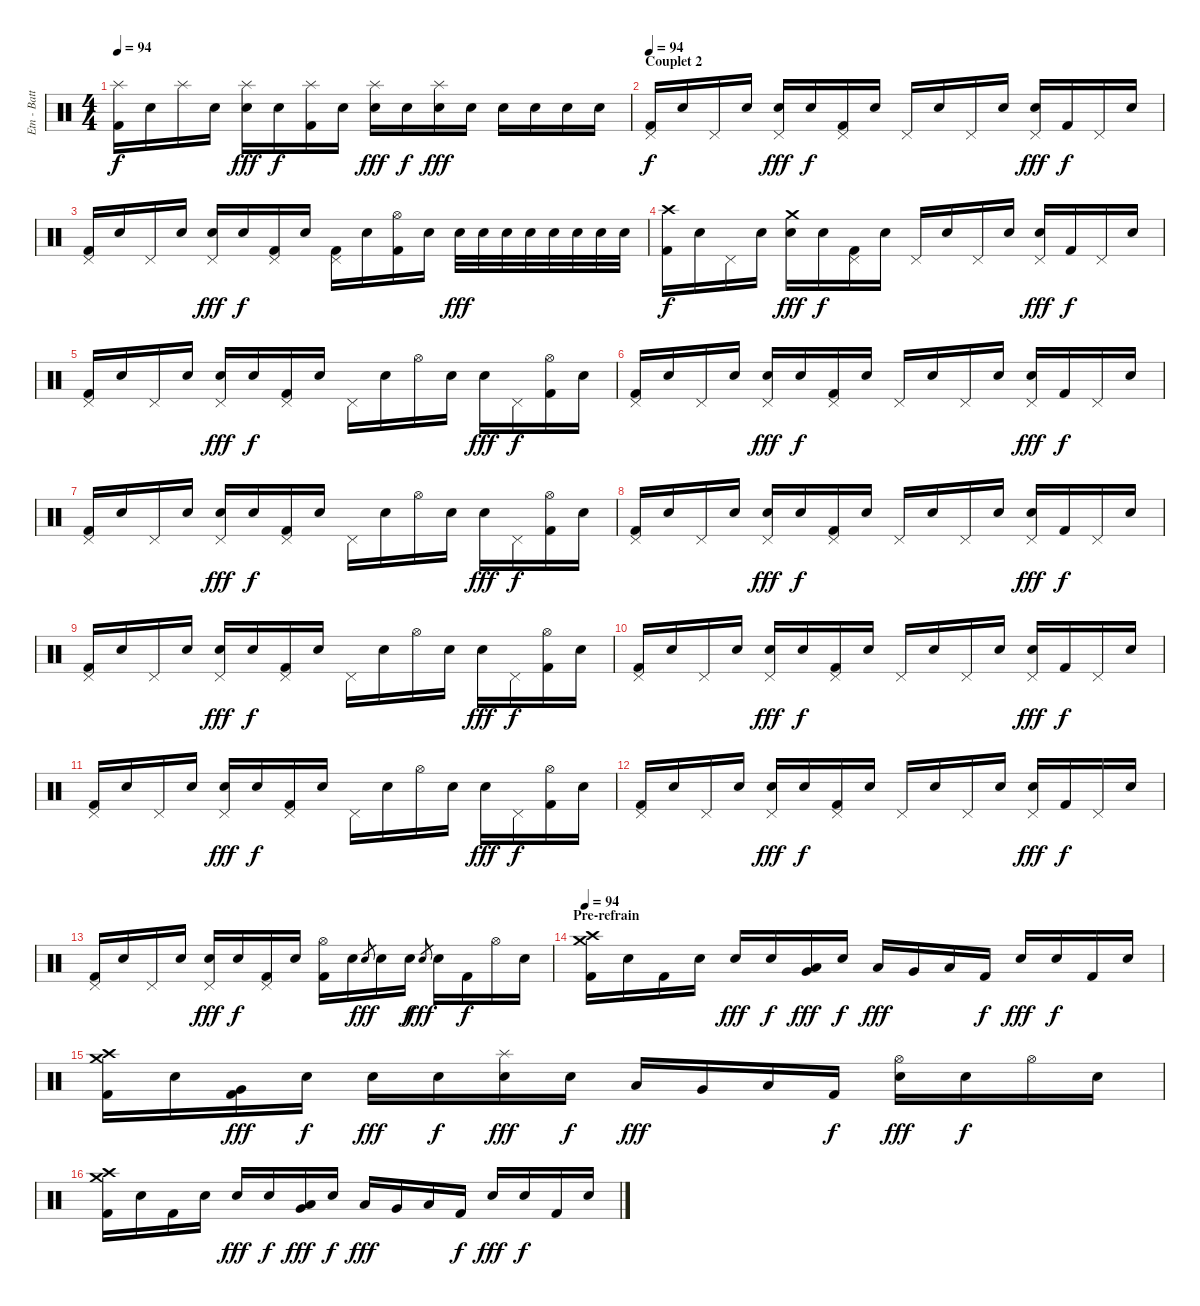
\track ("Etn - Batterie" "Etn - Batt") {instrument percussion}
\staff {score}
\articulation defaults
\ts (4 4)
\tempo 94
\clef neutral
\ks c
("Splash (hit)" "Kick (hit) 2").16{dy f} "Snare (hit)".16 "Splash (hit)".16 "Snare (hit)".16 ("Splash (hit)" "Electric Snare (hit)").16{dy fff} "Snare (hit)".16{dy f} ("Splash (hit)" "Kick (hit) 2").16 "Snare (hit)".16 ("Splash (hit)" "Electric Snare (hit)").16{dy fff} "Snare (hit)".16{dy f} ("Splash (hit)" "Electric Snare (hit)").16{dy fff} "Electric Snare (hit)".16 "Electric Snare (hit)".16 "Electric Snare (hit)".16 "Electric Snare (hit)".16 "Electric Snare (hit)".16 |
\section ("" "Couplet 2")
\tempo 94
("Pedal Hi-Hat (hit)" "Kick (hit) 2").16{dy f volume 16 balance 8} "Snare (hit)".16 "Pedal Hi-Hat (hit)".16 "Snare (hit)".16 ("Pedal Hi-Hat (hit)" "Electric Snare (hit)").16{dy fff} "Snare (hit)".16{dy f} ("Pedal Hi-Hat (hit)" "Kick (hit) 2").16 "Snare (hit)".16 "Pedal Hi-Hat (hit)".16 "Snare (hit)".16 "Pedal Hi-Hat (hit)".16 "Snare (hit)".16 ("Pedal Hi-Hat (hit)" "Electric Snare (hit)").16{dy fff} "Kick (hit) 2".16{dy f} "Pedal Hi-Hat (hit)".16 "Snare (hit)".16 |
("Pedal Hi-Hat (hit)" "Kick (hit) 2").16 "Snare (hit)".16 "Pedal Hi-Hat (hit)".16 "Snare (hit)".16 ("Pedal Hi-Hat (hit)" "Electric Snare (hit)").16{dy fff} "Snare (hit)".16{dy f} ("Pedal Hi-Hat (hit)" "Kick (hit) 2").16 "Snare (hit)".16 ("Pedal Hi-Hat (hit)" "Kick (hit) 2").16 "Snare (hit)".16 ("Hi-Hat (open)" "Kick (hit) 2").16 "Snare (hit)".16 "Electric Snare (hit)".32{dy fff} "Electric Snare (hit)".32 "Electric Snare (hit)".32 "Electric Snare (hit)".32 "Electric Snare (hit)".32 "Electric Snare (hit)".32 "Electric Snare (hit)".32 "Electric Snare (hit)".32 |
("Crash high (hit)" "Kick (hit) 2").16{dy f} "Snare (hit)".16 "Pedal Hi-Hat (hit)".16 "Snare (hit)".16 ("Crash medium (hit)" "Electric Snare (hit)").16{dy fff} "Snare (hit)".16{dy f} ("Pedal Hi-Hat (hit)" "Kick (hit) 2").16 "Snare (hit)".16 "Pedal Hi-Hat (hit)".16 "Snare (hit)".16 "Pedal Hi-Hat (hit)".16 "Snare (hit)".16 ("Pedal Hi-Hat (hit)" "Electric Snare (hit)").16{dy fff} "Kick (hit) 2".16{dy f} "Pedal Hi-Hat (hit)".16 "Snare (hit)".16 |
("Pedal Hi-Hat (hit)" "Kick (hit) 2").16 "Snare (hit)".16 "Pedal Hi-Hat (hit)".16 "Snare (hit)".16 ("Pedal Hi-Hat (hit)" "Electric Snare (hit)").16{dy fff} "Snare (hit)".16{dy f} ("Pedal Hi-Hat (hit)" "Kick (hit) 2").16 "Snare (hit)".16 "Pedal Hi-Hat (hit)".16 "Snare (hit)".16 "Hi-Hat (open)".16 "Snare (hit)".16 "Electric Snare (hit)".16{dy fff} "Pedal Hi-Hat (hit)".16{dy f} ("Hi-Hat (open)" "Kick (hit) 2").16 "Snare (hit)".16 |
("Pedal Hi-Hat (hit)" "Kick (hit) 2").16 "Snare (hit)".16 "Pedal Hi-Hat (hit)".16 "Snare (hit)".16 ("Pedal Hi-Hat (hit)" "Electric Snare (hit)").16{dy fff} "Snare (hit)".16{dy f} ("Pedal Hi-Hat (hit)" "Kick (hit) 2").16 "Snare (hit)".16 "Pedal Hi-Hat (hit)".16 "Snare (hit)".16 "Pedal Hi-Hat (hit)".16 "Snare (hit)".16 ("Pedal Hi-Hat (hit)" "Electric Snare (hit)").16{dy fff} "Kick (hit) 2".16{dy f} "Pedal Hi-Hat (hit)".16 "Snare (hit)".16 |
("Pedal Hi-Hat (hit)" "Kick (hit) 2").16 "Snare (hit)".16 "Pedal Hi-Hat (hit)".16 "Snare (hit)".16 ("Pedal Hi-Hat (hit)" "Electric Snare (hit)").16{dy fff} "Snare (hit)".16{dy f} ("Pedal Hi-Hat (hit)" "Kick (hit) 2").16 "Snare (hit)".16 "Pedal Hi-Hat (hit)".16 "Snare (hit)".16 "Hi-Hat (open)".16 "Snare (hit)".16 "Electric Snare (hit)".16{dy fff} "Pedal Hi-Hat (hit)".16{dy f} ("Hi-Hat (open)" "Kick (hit) 2").16 "Snare (hit)".16 |
("Pedal Hi-Hat (hit)" "Kick (hit) 2").16 "Snare (hit)".16 "Pedal Hi-Hat (hit)".16 "Snare (hit)".16 ("Pedal Hi-Hat (hit)" "Electric Snare (hit)").16{dy fff} "Snare (hit)".16{dy f} ("Pedal Hi-Hat (hit)" "Kick (hit) 2").16 "Snare (hit)".16 "Pedal Hi-Hat (hit)".16 "Snare (hit)".16 "Pedal Hi-Hat (hit)".16 "Snare (hit)".16 ("Pedal Hi-Hat (hit)" "Electric Snare (hit)").16{dy fff} "Kick (hit) 2".16{dy f} "Pedal Hi-Hat (hit)".16 "Snare (hit)".16 |
("Pedal Hi-Hat (hit)" "Kick (hit) 2").16 "Snare (hit)".16 "Pedal Hi-Hat (hit)".16 "Snare (hit)".16 ("Pedal Hi-Hat (hit)" "Electric Snare (hit)").16{dy fff} "Snare (hit)".16{dy f} ("Pedal Hi-Hat (hit)" "Kick (hit) 2").16 "Snare (hit)".16 "Pedal Hi-Hat (hit)".16 "Snare (hit)".16 "Hi-Hat (open)".16 "Snare (hit)".16 "Electric Snare (hit)".16{dy fff} "Pedal Hi-Hat (hit)".16{dy f} ("Hi-Hat (open)" "Kick (hit) 2").16 "Snare (hit)".16 |
("Pedal Hi-Hat (hit)" "Kick (hit) 2").16 "Snare (hit)".16 "Pedal Hi-Hat (hit)".16 "Snare (hit)".16 ("Pedal Hi-Hat (hit)" "Electric Snare (hit)").16{dy fff} "Snare (hit)".16{dy f} ("Pedal Hi-Hat (hit)" "Kick (hit) 2").16 "Snare (hit)".16 "Pedal Hi-Hat (hit)".16 "Snare (hit)".16 "Pedal Hi-Hat (hit)".16 "Snare (hit)".16 ("Pedal Hi-Hat (hit)" "Electric Snare (hit)").16{dy fff} "Kick (hit) 2".16{dy f} "Pedal Hi-Hat (hit)".16 "Snare (hit)".16 |
("Pedal Hi-Hat (hit)" "Kick (hit) 2").16 "Snare (hit)".16 "Pedal Hi-Hat (hit)".16 "Snare (hit)".16 ("Pedal Hi-Hat (hit)" "Electric Snare (hit)").16{dy fff} "Snare (hit)".16{dy f} ("Pedal Hi-Hat (hit)" "Kick (hit) 2").16 "Snare (hit)".16 "Pedal Hi-Hat (hit)".16 "Snare (hit)".16 "Hi-Hat (open)".16 "Snare (hit)".16 "Electric Snare (hit)".16{dy fff} "Pedal Hi-Hat (hit)".16{dy f} ("Hi-Hat (open)" "Kick (hit) 2").16 "Snare (hit)".16 |
("Pedal Hi-Hat (hit)" "Kick (hit) 2").16 "Snare (hit)".16 "Pedal Hi-Hat (hit)".16 "Snare (hit)".16 ("Pedal Hi-Hat (hit)" "Electric Snare (hit)").16{dy fff} "Snare (hit)".16{dy f} ("Pedal Hi-Hat (hit)" "Kick (hit) 2").16 "Snare (hit)".16 "Pedal Hi-Hat (hit)".16 "Snare (hit)".16 "Pedal Hi-Hat (hit)".16 "Snare (hit)".16 ("Pedal Hi-Hat (hit)" "Electric Snare (hit)").16{dy fff} "Kick (hit) 2".16{dy f} "Pedal Hi-Hat (hit)".16 "Snare (hit)".16 |
("Pedal Hi-Hat (hit)" "Kick (hit) 2").16 "Snare (hit)".16 "Pedal Hi-Hat (hit)".16 "Snare (hit)".16 ("Pedal Hi-Hat (hit)" "Electric Snare (hit)").16{dy fff} "Snare (hit)".16{dy f} ("Pedal Hi-Hat (hit)" "Kick (hit) 2").16 "Snare (hit)".16 ("Hi-Hat (open)" "Kick (hit) 2").16 "Snare (hit)".16 "Electric Snare (hit)".8{gr dy fff} "Electric Snare (hit)".16 "Snare (hit)".16{dy f} "Electric Snare (hit)".8{gr dy fff} "Electric Snare (hit)".16 "Kick (hit) 2".16{dy f} "Hi-Hat (open)".16 "Snare (hit)".16 |
\section ("" "Pre-refrain")
\tempo 94
("Crash medium (hit)" "Crash high (hit)" "Kick (hit) 2").16{volume 16 balance 8} "Snare (hit)".16 "Kick (hit) 2".16 "Snare (hit)".16 "Electric Snare (hit)".16{dy fff} "Snare (hit)".16{dy f} ("Low Tom (hit)" "Very Low Tom (hit)").16{dy fff} "Snare (hit)".16{dy f} "Low Tom (hit)".16{dy fff} "Very Low Tom (hit)".16 "Low Floor Tom (hit)".16 "Kick (hit) 2".16{dy f} "Electric Snare (hit)".16{dy fff} "Snare (hit)".16{dy f} "Kick (hit) 2".16 "Snare (hit)".16 |
("Crash medium (hit)" "Crash high (hit)" "Kick (hit) 2").16 "Snare (hit)".16 ("Very Low Tom (hit)" "Kick (hit) 2").16{dy fff} "Snare (hit)".16{dy f} "Electric Snare (hit)".16{dy fff} "Snare (hit)".16{dy f} ("Splash (hit)" "Electric Snare (hit)").16{dy fff} "Snare (hit)".16{dy f} "Low Tom (hit)".16{dy fff} "Very Low Tom (hit)".16 "Low Floor Tom (hit)".16 "Kick (hit) 2".16{dy f} ("Hi-Hat (open)" "Electric Snare (hit)").16{dy fff} "Snare (hit)".16{dy f} "Hi-Hat (open)".16 "Snare (hit)".16 |
("Crash medium (hit)" "Crash high (hit)" "Kick (hit) 2").16 "Snare (hit)".16 "Kick (hit) 2".16 "Snare (hit)".16 "Electric Snare (hit)".16{dy fff} "Snare (hit)".16{dy f} ("Low Tom (hit)" "Very Low Tom (hit)").16{dy fff} "Snare (hit)".16{dy f} "Low Tom (hit)".16{dy fff} "Very Low Tom (hit)".16 "Low Floor Tom (hit)".16 "Kick (hit) 2".16{dy f} "Electric Snare (hit)".16{dy fff} "Snare (hit)".16{dy f} "Kick (hit) 2".16 "Snare (hit)".16
